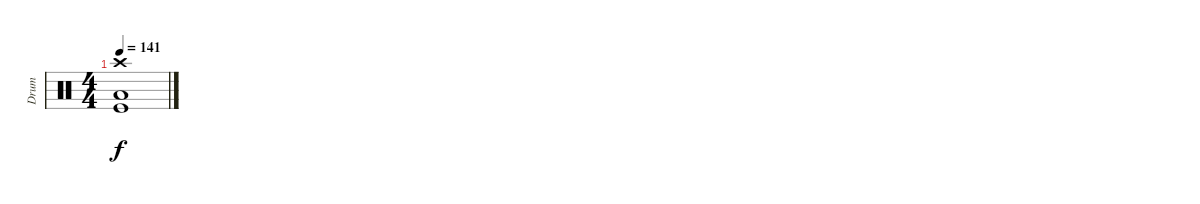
\track ("Drum" "Drum") {instrument percussion}
\staff {score}
\articulation defaults
\ts (4 4)
\tempo 141
\clef neutral
\ks c
("Crash high (hit)" "Low Tom (hit)" "Kick (hit)").1{dy f}
